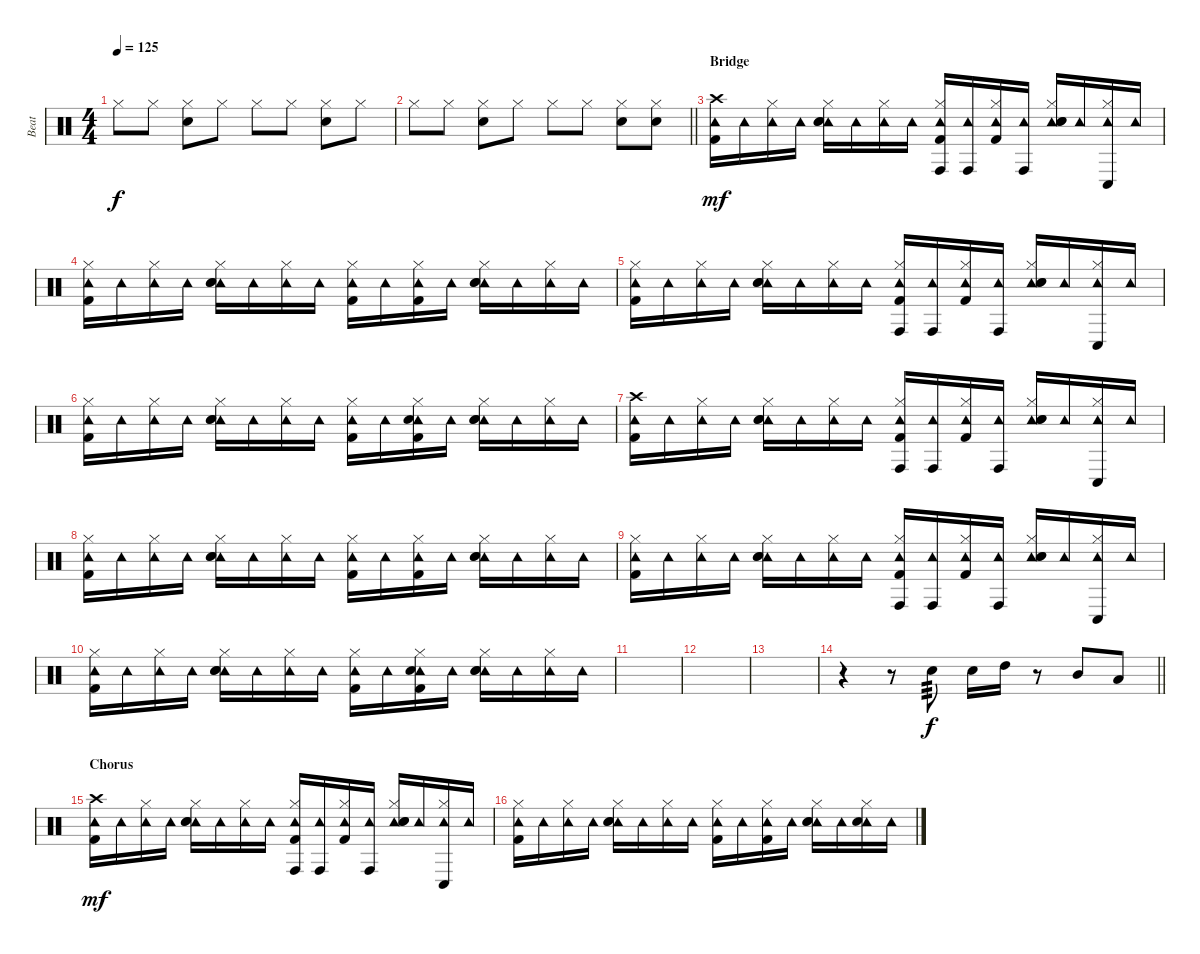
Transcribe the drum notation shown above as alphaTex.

\track ("Beat" "Beat") {instrument percussion}
\staff {score}
\articulation defaults
\ts (4 4)
\tempo 125
\clef neutral
\ks c "Hi-Hat (closed)".8{dy f} "Hi-Hat (closed)".8
("Hi-Hat (closed)" "Hand Clap (hit)").8 "Hi-Hat (closed)".8 "Hi-Hat (closed)".8 "Hi-Hat (closed)".8 ("Hi-Hat (closed)" "Hand Clap (hit)").8 "Hi-Hat (closed)".8 |
\barLineRight lightlight "Hi-Hat (closed)".8 "Hi-Hat (closed)".8
("Hi-Hat (closed)" "Hand Clap (hit)").8 "Hi-Hat (closed)".8 "Hi-Hat (closed)".8 "Hi-Hat (closed)".8 ("Hi-Hat (closed)" "Hand Clap (hit)").8 ("Hi-Hat (closed)" "Hand Clap (hit)").8 |
\section ("" "Bridge")
("Crash high (hit)" "Tambourine (hit)" "Kick (hit) 2").16{dy mf} "Tambourine (hit)".16 ("Hi-Hat (closed)" "Tambourine (hit)").16 "Tambourine (hit)".16 ("Hi-Hat (closed)" "Tambourine (hit)" "Snare (hit) 2" "Hand Clap (hit)").16 "Tambourine (hit)".16 ("Hi-Hat (closed)" "Tambourine (hit)").16 "Tambourine (hit)".16 ("Conga high (hit)" "Hi-Hat (closed)" "Tambourine (hit)" "Kick (hit) 2").16 ("Conga high (hit)" "Tambourine (hit)").16 ("Hi-Hat (closed)" "Tambourine (hit)" "Kick (hit) 2").16 ("Conga high (hit)" "Tambourine (hit)").16 ("Hi-Hat (closed)" "Tambourine (hit)" "Snare (hit) 2" "Hand Clap (hit)").16 "Tambourine (hit)".16 ("Conga low (hit)" "Hi-Hat (closed)" "Tambourine (hit)").16 "Tambourine (hit)".16 |
("Hi-Hat (closed)" "Tambourine (hit)" "Kick (hit) 2").16 "Tambourine (hit)".16 ("Hi-Hat (closed)" "Tambourine (hit)").16 "Tambourine (hit)".16 ("Hi-Hat (closed)" "Tambourine (hit)" "Snare (hit) 2" "Hand Clap (hit)").16 "Tambourine (hit)".16 ("Hi-Hat (closed)" "Tambourine (hit)").16 "Tambourine (hit)".16 ("Hi-Hat (closed)" "Tambourine (hit)" "Kick (hit) 2").16 "Tambourine (hit)".16 ("Hi-Hat (closed)" "Tambourine (hit)" "Kick (hit) 2").16 "Tambourine (hit)".16 ("Hi-Hat (closed)" "Tambourine (hit)" "Snare (hit) 2" "Hand Clap (hit)").16 "Tambourine (hit)".16 ("Hi-Hat (closed)" "Tambourine (hit)").16 "Tambourine (hit)".16 |
("Hi-Hat (closed)" "Tambourine (hit)" "Kick (hit) 2").16 "Tambourine (hit)".16 ("Hi-Hat (closed)" "Tambourine (hit)").16 "Tambourine (hit)".16 ("Hi-Hat (closed)" "Tambourine (hit)" "Snare (hit) 2" "Hand Clap (hit)").16 "Tambourine (hit)".16 ("Hi-Hat (closed)" "Tambourine (hit)").16 "Tambourine (hit)".16 ("Conga high (hit)" "Hi-Hat (closed)" "Tambourine (hit)" "Kick (hit) 2").16 ("Conga high (hit)" "Tambourine (hit)").16 ("Hi-Hat (closed)" "Tambourine (hit)" "Kick (hit) 2").16 ("Conga high (hit)" "Tambourine (hit)").16 ("Hi-Hat (closed)" "Tambourine (hit)" "Snare (hit) 2" "Hand Clap (hit)").16 "Tambourine (hit)".16 ("Conga low (hit)" "Hi-Hat (closed)" "Tambourine (hit)").16 "Tambourine (hit)".16 |
("Hi-Hat (closed)" "Tambourine (hit)" "Kick (hit) 2").16 "Tambourine (hit)".16 ("Hi-Hat (closed)" "Tambourine (hit)").16 "Tambourine (hit)".16 ("Hi-Hat (closed)" "Tambourine (hit)" "Snare (hit) 2" "Hand Clap (hit)").16 "Tambourine (hit)".16 ("Hi-Hat (closed)" "Tambourine (hit)").16 "Tambourine (hit)".16 ("Hi-Hat (closed)" "Tambourine (hit)" "Kick (hit) 2").16 "Tambourine (hit)".16 ("Hi-Hat (closed)" "Tambourine (hit)" "Hand Clap (hit)" "Kick (hit) 2").16 "Tambourine (hit)".16 ("Hi-Hat (closed)" "Tambourine (hit)" "Snare (hit) 2" "Hand Clap (hit)").16 "Tambourine (hit)".16 ("Hi-Hat (closed)" "Tambourine (hit)").16 "Tambourine (hit)".16 |
("Crash high (hit)" "Tambourine (hit)" "Kick (hit) 2").16 "Tambourine (hit)".16 ("Hi-Hat (closed)" "Tambourine (hit)").16 "Tambourine (hit)".16 ("Hi-Hat (closed)" "Tambourine (hit)" "Snare (hit) 2" "Hand Clap (hit)").16 "Tambourine (hit)".16 ("Hi-Hat (closed)" "Tambourine (hit)").16 "Tambourine (hit)".16 ("Conga high (hit)" "Hi-Hat (closed)" "Tambourine (hit)" "Kick (hit) 2").16 ("Conga high (hit)" "Tambourine (hit)").16 ("Hi-Hat (closed)" "Tambourine (hit)" "Kick (hit) 2").16 ("Conga high (hit)" "Tambourine (hit)").16 ("Hi-Hat (closed)" "Tambourine (hit)" "Snare (hit) 2" "Hand Clap (hit)").16 "Tambourine (hit)".16 ("Conga low (hit)" "Hi-Hat (closed)" "Tambourine (hit)").16 "Tambourine (hit)".16 |
("Hi-Hat (closed)" "Tambourine (hit)" "Kick (hit) 2").16 "Tambourine (hit)".16 ("Hi-Hat (closed)" "Tambourine (hit)").16 "Tambourine (hit)".16 ("Hi-Hat (closed)" "Tambourine (hit)" "Snare (hit) 2" "Hand Clap (hit)").16 "Tambourine (hit)".16 ("Hi-Hat (closed)" "Tambourine (hit)").16 "Tambourine (hit)".16 ("Hi-Hat (closed)" "Tambourine (hit)" "Kick (hit) 2").16 "Tambourine (hit)".16 ("Hi-Hat (closed)" "Tambourine (hit)" "Kick (hit) 2").16 "Tambourine (hit)".16 ("Hi-Hat (closed)" "Tambourine (hit)" "Snare (hit) 2" "Hand Clap (hit)").16 "Tambourine (hit)".16 ("Hi-Hat (closed)" "Tambourine (hit)").16 "Tambourine (hit)".16 |
("Hi-Hat (closed)" "Tambourine (hit)" "Kick (hit) 2").16 "Tambourine (hit)".16 ("Hi-Hat (closed)" "Tambourine (hit)").16 "Tambourine (hit)".16 ("Hi-Hat (closed)" "Tambourine (hit)" "Snare (hit) 2" "Hand Clap (hit)").16 "Tambourine (hit)".16 ("Hi-Hat (closed)" "Tambourine (hit)").16 "Tambourine (hit)".16 ("Conga high (hit)" "Hi-Hat (closed)" "Tambourine (hit)" "Kick (hit) 2").16 ("Conga high (hit)" "Tambourine (hit)").16 ("Hi-Hat (closed)" "Tambourine (hit)" "Kick (hit) 2").16 ("Conga high (hit)" "Tambourine (hit)").16 ("Hi-Hat (closed)" "Tambourine (hit)" "Snare (hit) 2" "Hand Clap (hit)").16 "Tambourine (hit)".16 ("Conga low (hit)" "Hi-Hat (closed)" "Tambourine (hit)").16 "Tambourine (hit)".16 |
("Hi-Hat (closed)" "Tambourine (hit)" "Kick (hit) 2").16 "Tambourine (hit)".16 ("Hi-Hat (closed)" "Tambourine (hit)").16 "Tambourine (hit)".16 ("Hi-Hat (closed)" "Tambourine (hit)" "Snare (hit) 2" "Hand Clap (hit)").16 "Tambourine (hit)".16 ("Hi-Hat (closed)" "Tambourine (hit)").16 "Tambourine (hit)".16 ("Hi-Hat (closed)" "Tambourine (hit)" "Kick (hit) 2").16 "Tambourine (hit)".16 ("Hi-Hat (closed)" "Tambourine (hit)" "Hand Clap (hit)" "Kick (hit) 2").16 "Tambourine (hit)".16 ("Hi-Hat (closed)" "Tambourine (hit)" "Snare (hit) 2" "Hand Clap (hit)").16 "Tambourine (hit)".16 ("Hi-Hat (closed)" "Tambourine (hit)").16 "Tambourine (hit)".16 |
|
|
|
\barLineRight lightlight
r.4 r.8 "Snare (hit) 2".8{tp 3 dy f} "Snare (hit) 2".16 "High Tom (hit)".16 r.8 "Mid Tom (hit)".8 "Low Tom (hit)".8 |
\section ("" "Chorus")
("Crash high (hit)" "Tambourine (hit)" "Kick (hit) 2").16{dy mf} "Tambourine (hit)".16 ("Hi-Hat (closed)" "Tambourine (hit)").16 "Tambourine (hit)".16 ("Hi-Hat (closed)" "Tambourine (hit)" "Snare (hit) 2" "Hand Clap (hit)").16 "Tambourine (hit)".16 ("Hi-Hat (closed)" "Tambourine (hit)").16 "Tambourine (hit)".16 ("Conga high (hit)" "Hi-Hat (closed)" "Tambourine (hit)" "Kick (hit) 2").16 ("Conga high (hit)" "Tambourine (hit)").16 ("Hi-Hat (closed)" "Tambourine (hit)" "Kick (hit) 2").16 ("Conga high (hit)" "Tambourine (hit)").16 ("Hi-Hat (closed)" "Tambourine (hit)" "Snare (hit) 2" "Hand Clap (hit)").16 "Tambourine (hit)".16 ("Conga low (hit)" "Hi-Hat (closed)" "Tambourine (hit)").16 "Tambourine (hit)".16 |
("Hi-Hat (closed)" "Tambourine (hit)" "Kick (hit) 2").16 "Tambourine (hit)".16 ("Hi-Hat (closed)" "Tambourine (hit)").16 "Tambourine (hit)".16 ("Hi-Hat (closed)" "Tambourine (hit)" "Snare (hit) 2" "Hand Clap (hit)").16 "Tambourine (hit)".16 ("Hi-Hat (closed)" "Tambourine (hit)").16 "Tambourine (hit)".16 ("Hi-Hat (closed)" "Tambourine (hit)" "Kick (hit) 2").16 "Tambourine (hit)".16 ("Hi-Hat (closed)" "Tambourine (hit)" "Kick (hit) 2").16 "Tambourine (hit)".16 ("Hi-Hat (closed)" "Tambourine (hit)" "Snare (hit) 2" "Hand Clap (hit)").16 "Tambourine (hit)".16 ("Hi-Hat (closed)" "Tambourine (hit)" "Hand Clap (hit)").16 "Tambourine (hit)".16
